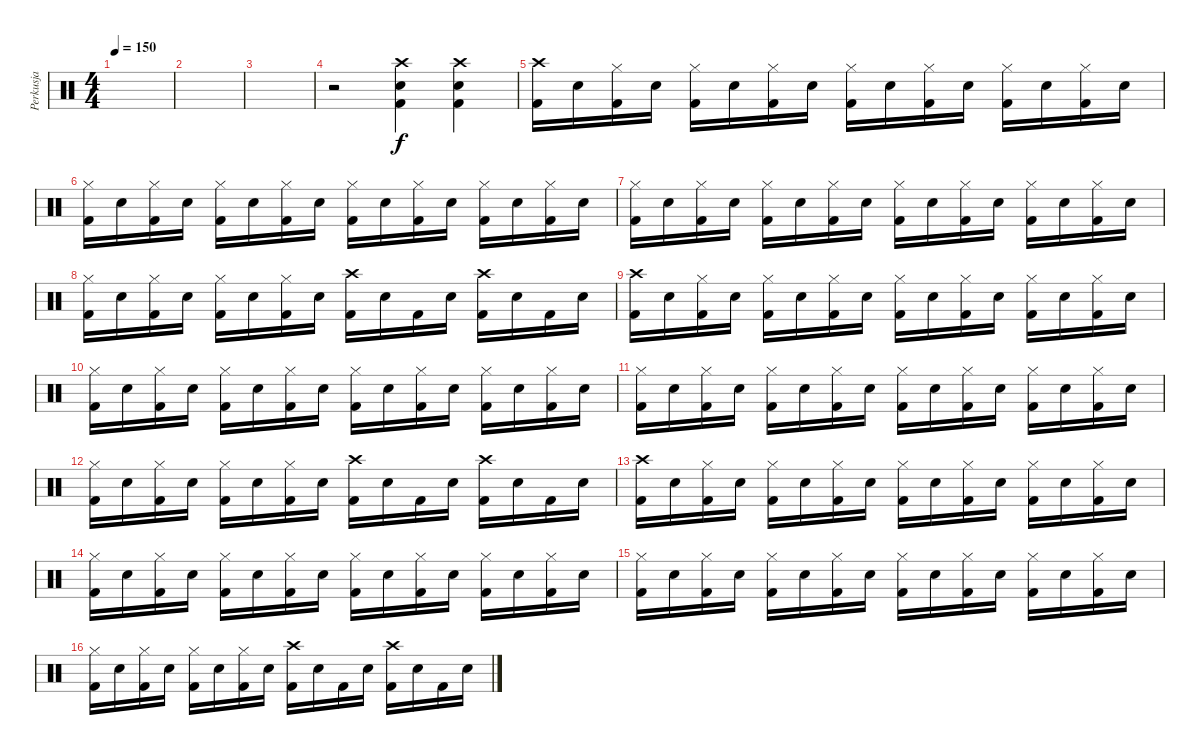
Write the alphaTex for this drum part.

\track ("Perkusja" "Perkusja") {instrument percussion}
\staff {score}
\articulation defaults
\ts (4 4)
\tempo 150
\clef neutral
\ks c
|
|
|
r.2 ("Crash high (hit)" "Snare (hit) 2" "Kick (hit) 2").4 ("Crash high (hit)" "Snare (hit) 2" "Kick (hit) 2").4 |
("Crash high (hit)" "Kick (hit) 2").16 "Snare (hit) 2".16 ("Hi-Hat (closed)" "Kick (hit) 2").16 "Snare (hit) 2".16 ("Hi-Hat (closed)" "Kick (hit) 2").16 "Snare (hit) 2".16 ("Hi-Hat (closed)" "Kick (hit) 2").16 "Snare (hit) 2".16 ("Hi-Hat (closed)" "Kick (hit) 2").16 "Snare (hit) 2".16 ("Hi-Hat (closed)" "Kick (hit) 2").16 "Snare (hit) 2".16 ("Hi-Hat (closed)" "Kick (hit) 2").16 "Snare (hit) 2".16 ("Hi-Hat (closed)" "Kick (hit) 2").16 "Snare (hit) 2".16 |
("Hi-Hat (closed)" "Kick (hit) 2").16 "Snare (hit) 2".16 ("Hi-Hat (closed)" "Kick (hit) 2").16 "Snare (hit) 2".16 ("Hi-Hat (closed)" "Kick (hit) 2").16 "Snare (hit) 2".16 ("Hi-Hat (closed)" "Kick (hit) 2").16 "Snare (hit) 2".16 ("Hi-Hat (closed)" "Kick (hit) 2").16 "Snare (hit) 2".16 ("Hi-Hat (closed)" "Kick (hit) 2").16 "Snare (hit) 2".16 ("Hi-Hat (closed)" "Kick (hit) 2").16 "Snare (hit) 2".16 ("Hi-Hat (closed)" "Kick (hit) 2").16 "Snare (hit) 2".16 |
("Hi-Hat (closed)" "Kick (hit) 2").16 "Snare (hit) 2".16 ("Hi-Hat (closed)" "Kick (hit) 2").16 "Snare (hit) 2".16 ("Hi-Hat (closed)" "Kick (hit) 2").16 "Snare (hit) 2".16 ("Hi-Hat (closed)" "Kick (hit) 2").16 "Snare (hit) 2".16 ("Hi-Hat (closed)" "Kick (hit) 2").16 "Snare (hit) 2".16 ("Hi-Hat (closed)" "Kick (hit) 2").16 "Snare (hit) 2".16 ("Hi-Hat (closed)" "Kick (hit) 2").16 "Snare (hit) 2".16 ("Hi-Hat (closed)" "Kick (hit) 2").16 "Snare (hit) 2".16 |
("Hi-Hat (closed)" "Kick (hit) 2").16 "Snare (hit) 2".16 ("Hi-Hat (closed)" "Kick (hit) 2").16 "Snare (hit) 2".16 ("Hi-Hat (closed)" "Kick (hit) 2").16 "Snare (hit) 2".16 ("Hi-Hat (closed)" "Kick (hit) 2").16 "Snare (hit) 2".16 ("Crash high (hit)" "Kick (hit) 2").16 "Snare (hit) 2".16 "Kick (hit) 2".16 "Snare (hit) 2".16 ("Crash high (hit)" "Kick (hit) 2").16 "Snare (hit) 2".16 "Kick (hit) 2".16 "Snare (hit) 2".16 |
("Crash high (hit)" "Kick (hit) 2").16 "Snare (hit) 2".16 ("Hi-Hat (closed)" "Kick (hit) 2").16 "Snare (hit) 2".16 ("Hi-Hat (closed)" "Kick (hit) 2").16 "Snare (hit) 2".16 ("Hi-Hat (closed)" "Kick (hit) 2").16 "Snare (hit) 2".16 ("Hi-Hat (closed)" "Kick (hit) 2").16 "Snare (hit) 2".16 ("Hi-Hat (closed)" "Kick (hit) 2").16 "Snare (hit) 2".16 ("Hi-Hat (closed)" "Kick (hit) 2").16 "Snare (hit) 2".16 ("Hi-Hat (closed)" "Kick (hit) 2").16 "Snare (hit) 2".16 |
("Hi-Hat (closed)" "Kick (hit) 2").16 "Snare (hit) 2".16 ("Hi-Hat (closed)" "Kick (hit) 2").16 "Snare (hit) 2".16 ("Hi-Hat (closed)" "Kick (hit) 2").16 "Snare (hit) 2".16 ("Hi-Hat (closed)" "Kick (hit) 2").16 "Snare (hit) 2".16 ("Hi-Hat (closed)" "Kick (hit) 2").16 "Snare (hit) 2".16 ("Hi-Hat (closed)" "Kick (hit) 2").16 "Snare (hit) 2".16 ("Hi-Hat (closed)" "Kick (hit) 2").16 "Snare (hit) 2".16 ("Hi-Hat (closed)" "Kick (hit) 2").16 "Snare (hit) 2".16 |
("Hi-Hat (closed)" "Kick (hit) 2").16 "Snare (hit) 2".16 ("Hi-Hat (closed)" "Kick (hit) 2").16 "Snare (hit) 2".16 ("Hi-Hat (closed)" "Kick (hit) 2").16 "Snare (hit) 2".16 ("Hi-Hat (closed)" "Kick (hit) 2").16 "Snare (hit) 2".16 ("Hi-Hat (closed)" "Kick (hit) 2").16 "Snare (hit) 2".16 ("Hi-Hat (closed)" "Kick (hit) 2").16 "Snare (hit) 2".16 ("Hi-Hat (closed)" "Kick (hit) 2").16 "Snare (hit) 2".16 ("Hi-Hat (closed)" "Kick (hit) 2").16 "Snare (hit) 2".16 |
("Hi-Hat (closed)" "Kick (hit) 2").16 "Snare (hit) 2".16 ("Hi-Hat (closed)" "Kick (hit) 2").16 "Snare (hit) 2".16 ("Hi-Hat (closed)" "Kick (hit) 2").16 "Snare (hit) 2".16 ("Hi-Hat (closed)" "Kick (hit) 2").16 "Snare (hit) 2".16 ("Crash high (hit)" "Kick (hit) 2").16 "Snare (hit) 2".16 "Kick (hit) 2".16 "Snare (hit) 2".16 ("Crash high (hit)" "Kick (hit) 2").16 "Snare (hit) 2".16 "Kick (hit) 2".16 "Snare (hit) 2".16 |
("Crash high (hit)" "Kick (hit) 2").16 "Snare (hit) 2".16 ("Hi-Hat (closed)" "Kick (hit) 2").16 "Snare (hit) 2".16 ("Hi-Hat (closed)" "Kick (hit) 2").16 "Snare (hit) 2".16 ("Hi-Hat (closed)" "Kick (hit) 2").16 "Snare (hit) 2".16 ("Hi-Hat (closed)" "Kick (hit) 2").16 "Snare (hit) 2".16 ("Hi-Hat (closed)" "Kick (hit) 2").16 "Snare (hit) 2".16 ("Hi-Hat (closed)" "Kick (hit) 2").16 "Snare (hit) 2".16 ("Hi-Hat (closed)" "Kick (hit) 2").16 "Snare (hit) 2".16 |
("Hi-Hat (closed)" "Kick (hit) 2").16 "Snare (hit) 2".16 ("Hi-Hat (closed)" "Kick (hit) 2").16 "Snare (hit) 2".16 ("Hi-Hat (closed)" "Kick (hit) 2").16 "Snare (hit) 2".16 ("Hi-Hat (closed)" "Kick (hit) 2").16 "Snare (hit) 2".16 ("Hi-Hat (closed)" "Kick (hit) 2").16 "Snare (hit) 2".16 ("Hi-Hat (closed)" "Kick (hit) 2").16 "Snare (hit) 2".16 ("Hi-Hat (closed)" "Kick (hit) 2").16 "Snare (hit) 2".16 ("Hi-Hat (closed)" "Kick (hit) 2").16 "Snare (hit) 2".16 |
("Hi-Hat (closed)" "Kick (hit) 2").16 "Snare (hit) 2".16 ("Hi-Hat (closed)" "Kick (hit) 2").16 "Snare (hit) 2".16 ("Hi-Hat (closed)" "Kick (hit) 2").16 "Snare (hit) 2".16 ("Hi-Hat (closed)" "Kick (hit) 2").16 "Snare (hit) 2".16 ("Hi-Hat (closed)" "Kick (hit) 2").16 "Snare (hit) 2".16 ("Hi-Hat (closed)" "Kick (hit) 2").16 "Snare (hit) 2".16 ("Hi-Hat (closed)" "Kick (hit) 2").16 "Snare (hit) 2".16 ("Hi-Hat (closed)" "Kick (hit) 2").16 "Snare (hit) 2".16 |
("Hi-Hat (closed)" "Kick (hit) 2").16 "Snare (hit) 2".16 ("Hi-Hat (closed)" "Kick (hit) 2").16 "Snare (hit) 2".16 ("Hi-Hat (closed)" "Kick (hit) 2").16 "Snare (hit) 2".16 ("Hi-Hat (closed)" "Kick (hit) 2").16 "Snare (hit) 2".16 ("Crash high (hit)" "Kick (hit) 2").16 "Snare (hit) 2".16 "Kick (hit) 2".16 "Snare (hit) 2".16 ("Crash high (hit)" "Kick (hit) 2").16 "Snare (hit) 2".16 "Kick (hit) 2".16 "Snare (hit) 2".16
